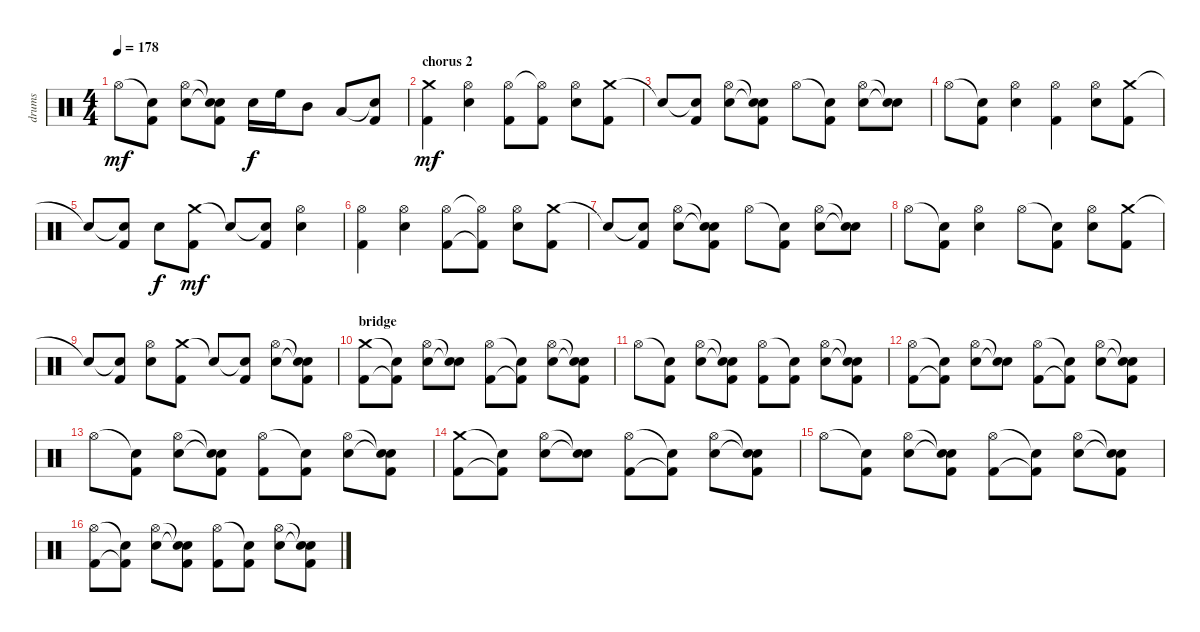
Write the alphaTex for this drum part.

\track ("drums" "drums") {instrument percussion}
\staff {score}
\articulation defaults
\ts (4 4)
\tempo 178
\clef neutral
\ks aminor "Hi-Hat (open)".8{dy mf}
("Snare (hit)"{t} "Kick (hit) 2").8 ("Hi-Hat (open)" "Snare (hit) 2").8 ("Snare (hit)"{t} "Snare (hit)"{t} "Kick (hit) 2").8 "Snare (hit) 2".16{dy f} "High Floor Tom (hit)".16 "Mid Tom (hit)".8 "Low Tom (hit)".8 ("Snare (hit)"{t} "Kick (hit) 2").8 |
\section ("" "chorus 2")
("Crash medium (hit)" "Kick (hit) 2").4{dy mf} ("Hi-Hat (open)" "Snare (hit) 2").4 ("Hi-Hat (open)" "Kick (hit) 2").8 ("Hi-Hat (open)"{t} "Kick (hit) 2").8 ("Hi-Hat (open)" "Snare (hit) 2").8 ("Crash medium (hit)" "Kick (hit) 2").8 |
"Snare (hit)"{t}.8 ("Snare (hit)"{t} "Kick (hit) 2").8 ("Hi-Hat (open)" "Snare (hit) 2").8 ("Snare (hit)"{t} "Snare (hit)"{t} "Kick (hit) 2").8 "Hi-Hat (open)".8 ("Snare (hit)"{t} "Kick (hit) 2").8 ("Hi-Hat (open)" "Snare (hit) 2").8 ("Snare (hit)"{t} "Snare (hit)"{t}).8 |
"Hi-Hat (open)".8 ("Snare (hit)"{t} "Kick (hit) 2").8 ("Hi-Hat (open)" "Snare (hit) 2").4 ("Hi-Hat (open)" "Kick (hit) 2").4 ("Hi-Hat (open)" "Snare (hit) 2").8 ("Crash medium (hit)" "Kick (hit) 2").8 |
"Snare (hit)"{t}.8 ("Snare (hit)"{t} "Kick (hit) 2").8 "Snare (hit) 2".8{dy f} ("Crash medium (hit)" "Kick (hit) 2").8{dy mf} "Snare (hit)"{t}.8 ("Snare (hit)"{t} "Kick (hit) 2").8 ("Hi-Hat (open)" "Snare (hit) 2").4 |
("Hi-Hat (open)" "Kick (hit) 2").4 ("Hi-Hat (open)" "Snare (hit) 2").4 ("Hi-Hat (open)" "Kick (hit) 2").8 ("Hi-Hat (open)"{t} "Kick (hit) 2"{t}).8 ("Hi-Hat (open)" "Snare (hit) 2").8 ("Crash medium (hit)" "Kick (hit) 2").8 |
"Snare (hit)"{t}.8 ("Snare (hit)"{t} "Kick (hit) 2").8 ("Hi-Hat (open)" "Snare (hit) 2").8 ("Snare (hit)"{t} "Snare (hit)"{t} "Kick (hit) 2").8 "Hi-Hat (open)".8 ("Snare (hit)"{t} "Kick (hit) 2").8 ("Hi-Hat (open)" "Snare (hit) 2").8 ("Snare (hit)"{t} "Snare (hit)"{t}).8 |
"Hi-Hat (open)".8 ("Snare (hit)"{t} "Kick (hit) 2").8 ("Hi-Hat (open)" "Snare (hit) 2").4 "Hi-Hat (open)".8 ("Snare (hit)"{t} "Kick (hit) 2").8 ("Hi-Hat (open)" "Snare (hit) 2").8 ("Crash medium (hit)" "Kick (hit) 2").8 |
"Snare (hit)"{t}.8 ("Snare (hit)"{t} "Kick (hit) 2").8 ("Hi-Hat (open)" "Snare (hit) 2").8 ("Crash medium (hit)" "Kick (hit) 2").8 "Snare (hit)"{t}.8 ("Snare (hit)"{t} "Kick (hit) 2").8 ("Hi-Hat (open)" "Snare (hit) 2").8 ("Snare (hit)"{t} "Snare (hit)"{t} "Kick (hit) 2").8 |
\section ("" "bridge")
("Crash medium (hit)" "Kick (hit) 2").8 ("Snare (hit)"{t} "Kick (hit) 2"{t}).8 ("Hi-Hat (open)" "Snare (hit) 2").8 ("Snare (hit)"{t} "Snare (hit)"{t}).8 ("Hi-Hat (open)" "Kick (hit) 2").8 ("Snare (hit)"{t} "Kick (hit) 2"{t}).8 ("Hi-Hat (open)" "Snare (hit) 2").8 ("Snare (hit)"{t} "Snare (hit)"{t} "Kick (hit) 2").8 |
"Hi-Hat (open)".8 ("Snare (hit)"{t} "Kick (hit) 2").8 ("Hi-Hat (open)" "Snare (hit) 2").8 ("Snare (hit)"{t} "Snare (hit)"{t} "Kick (hit) 2").8 ("Hi-Hat (open)" "Kick (hit) 2").8 ("Snare (hit)"{t} "Kick (hit) 2").8 ("Hi-Hat (open)" "Snare (hit) 2").8 ("Snare (hit)"{t} "Snare (hit)"{t} "Kick (hit) 2").8 |
("Hi-Hat (open)" "Kick (hit) 2").8 ("Snare (hit)"{t} "Kick (hit) 2"{t}).8 ("Hi-Hat (open)" "Snare (hit) 2").8 ("Snare (hit)"{t} "Snare (hit)"{t}).8 ("Hi-Hat (open)" "Kick (hit) 2").8 ("Snare (hit)"{t} "Kick (hit) 2"{t}).8 ("Hi-Hat (open)" "Snare (hit) 2").8 ("Snare (hit)"{t} "Snare (hit)"{t} "Kick (hit) 2").8 |
"Hi-Hat (open)".8 ("Snare (hit)"{t} "Kick (hit) 2").8 ("Hi-Hat (open)" "Snare (hit) 2").8 ("Snare (hit)"{t} "Snare (hit)"{t} "Kick (hit) 2").8 ("Hi-Hat (open)" "Kick (hit) 2").8 ("Snare (hit)"{t} "Kick (hit) 2").8 ("Hi-Hat (open)" "Snare (hit) 2").8 ("Snare (hit)"{t} "Snare (hit)"{t} "Kick (hit) 2").8 |
("Crash medium (hit)" "Kick (hit) 2").8 ("Snare (hit)"{t} "Kick (hit) 2"{t}).8 ("Hi-Hat (open)" "Snare (hit) 2").8 ("Snare (hit)"{t} "Snare (hit)"{t}).8 ("Hi-Hat (open)" "Kick (hit) 2").8 ("Snare (hit)"{t} "Kick (hit) 2"{t}).8 ("Hi-Hat (open)" "Snare (hit) 2").8 ("Snare (hit)"{t} "Snare (hit)"{t} "Kick (hit) 2").8 |
"Hi-Hat (open)".8 ("Snare (hit)"{t} "Kick (hit) 2").8 ("Hi-Hat (open)" "Snare (hit) 2").8 ("Snare (hit)"{t} "Snare (hit)"{t} "Kick (hit) 2").8 ("Hi-Hat (open)" "Kick (hit) 2").8 ("Snare (hit)"{t} "Kick (hit) 2"{t}).8 ("Hi-Hat (open)" "Snare (hit) 2").8 ("Snare (hit)"{t} "Snare (hit)"{t} "Kick (hit) 2").8 |
("Hi-Hat (open)" "Kick (hit) 2").8 ("Snare (hit)"{t} "Kick (hit) 2"{t}).8 ("Hi-Hat (open)" "Snare (hit) 2").8 ("Snare (hit)"{t} "Snare (hit)"{t} "Kick (hit) 2").8 ("Hi-Hat (open)" "Kick (hit) 2").8 ("Snare (hit)"{t} "Kick (hit) 2").8 ("Hi-Hat (open)" "Snare (hit) 2").8 ("Snare (hit)"{t} "Snare (hit)"{t} "Kick (hit) 2").8
